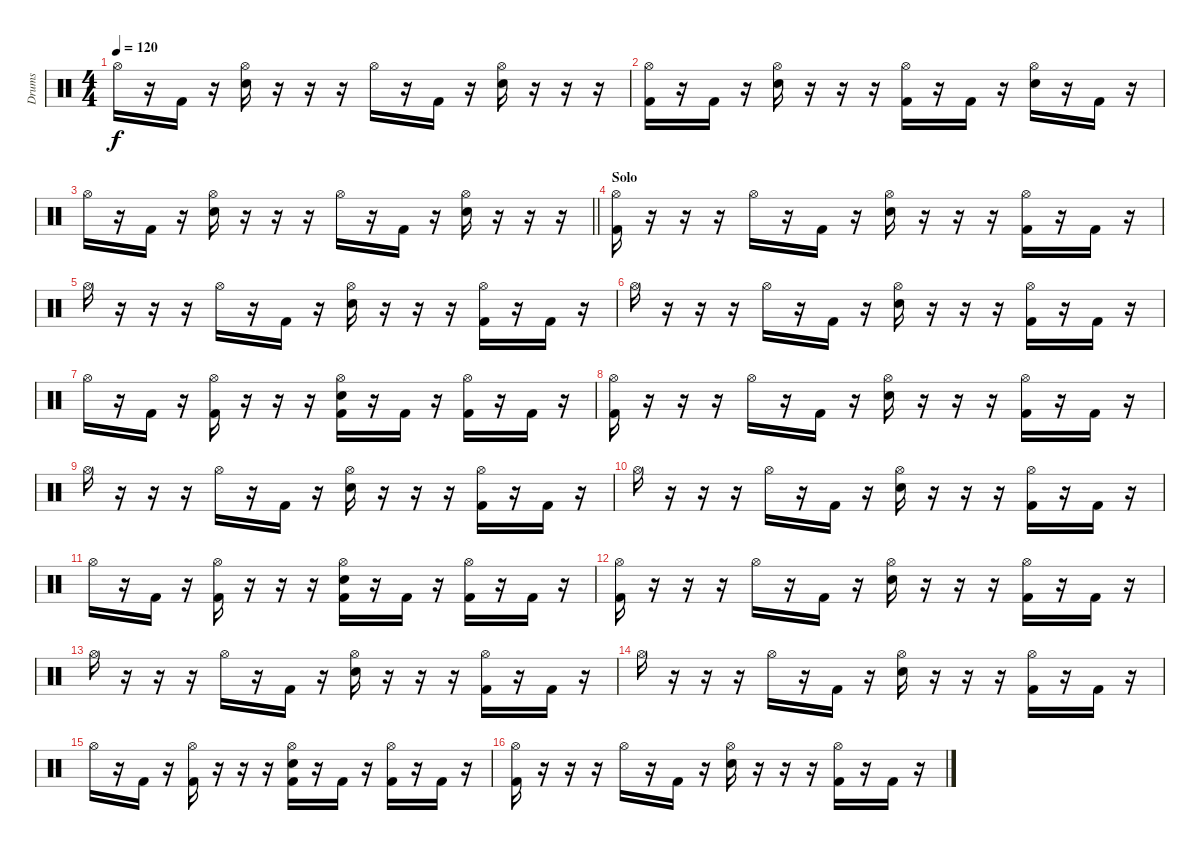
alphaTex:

\track ("Drums" "Drums") {instrument percussion}
\staff {score}
\articulation defaults
\ts (4 4)
\tempo 120
\clef neutral
\ks c "Hi-Hat (open)".16{dy f}
r.16 "Kick (hit) 2".16 r.16 ("Hi-Hat (open)" "Snare (hit) 2").16 r.16 r.16 r.16 "Hi-Hat (open)".16 r.16 "Kick (hit) 2".16 r.16 ("Hi-Hat (open)" "Snare (hit) 2").16 r.16 r.16 r.16 |
("Hi-Hat (open)" "Kick (hit) 2").16 r.16 "Kick (hit) 2".16 r.16 ("Hi-Hat (open)" "Snare (hit) 2").16 r.16 r.16 r.16 ("Hi-Hat (open)" "Kick (hit) 2").16 r.16 "Kick (hit) 2".16 r.16 ("Hi-Hat (open)" "Snare (hit) 2").16 r.16 "Kick (hit) 2".16 r.16 |
\barLineRight lightlight "Hi-Hat (open)".16
r.16 "Kick (hit) 2".16 r.16 ("Hi-Hat (open)" "Snare (hit) 2").16 r.16 r.16 r.16 "Hi-Hat (open)".16 r.16 "Kick (hit) 2".16 r.16 ("Hi-Hat (open)" "Snare (hit) 2").16 r.16 r.16 r.16 |
\section ("" "Solo")
("Hi-Hat (open)" "Kick (hit) 2").16 r.16 r.16 r.16 "Hi-Hat (open)".16 r.16 "Kick (hit) 2".16 r.16 ("Hi-Hat (open)" "Snare (hit) 2").16 r.16 r.16 r.16 ("Hi-Hat (open)" "Kick (hit) 2").16 r.16 "Kick (hit) 2".16 r.16 |
"Hi-Hat (open)".16 r.16 r.16 r.16 "Hi-Hat (open)".16 r.16 "Kick (hit) 2".16 r.16 ("Hi-Hat (open)" "Snare (hit) 2").16 r.16 r.16 r.16 ("Hi-Hat (open)" "Kick (hit) 2").16 r.16 "Kick (hit) 2".16 r.16 |
"Hi-Hat (open)".16 r.16 r.16 r.16 "Hi-Hat (open)".16 r.16 "Kick (hit) 2".16 r.16 ("Hi-Hat (open)" "Snare (hit) 2").16 r.16 r.16 r.16 ("Hi-Hat (open)" "Kick (hit) 2").16 r.16 "Kick (hit) 2".16 r.16 |
"Hi-Hat (open)".16 r.16 "Kick (hit) 2".16 r.16 ("Hi-Hat (open)" "Kick (hit) 2").16 r.16 r.16 r.16 ("Hi-Hat (open)" "Snare (hit) 2" "Kick (hit) 2").16 r.16 "Kick (hit) 2".16 r.16 ("Hi-Hat (open)" "Kick (hit) 2").16 r.16 "Kick (hit) 2".16 r.16 |
("Hi-Hat (open)" "Kick (hit) 2").16 r.16 r.16 r.16 "Hi-Hat (open)".16 r.16 "Kick (hit) 2".16 r.16 ("Hi-Hat (open)" "Snare (hit) 2").16 r.16 r.16 r.16 ("Hi-Hat (open)" "Kick (hit) 2").16 r.16 "Kick (hit) 2".16 r.16 |
"Hi-Hat (open)".16 r.16 r.16 r.16 "Hi-Hat (open)".16 r.16 "Kick (hit) 2".16 r.16 ("Hi-Hat (open)" "Snare (hit) 2").16 r.16 r.16 r.16 ("Hi-Hat (open)" "Kick (hit) 2").16 r.16 "Kick (hit) 2".16 r.16 |
"Hi-Hat (open)".16 r.16 r.16 r.16 "Hi-Hat (open)".16 r.16 "Kick (hit) 2".16 r.16 ("Hi-Hat (open)" "Snare (hit) 2").16 r.16 r.16 r.16 ("Hi-Hat (open)" "Kick (hit) 2").16 r.16 "Kick (hit) 2".16 r.16 |
"Hi-Hat (open)".16 r.16 "Kick (hit) 2".16 r.16 ("Hi-Hat (open)" "Kick (hit) 2").16 r.16 r.16 r.16 ("Hi-Hat (open)" "Snare (hit) 2" "Kick (hit) 2").16 r.16 "Kick (hit) 2".16 r.16 ("Hi-Hat (open)" "Kick (hit) 2").16 r.16 "Kick (hit) 2".16 r.16 |
("Hi-Hat (open)" "Kick (hit) 2").16 r.16 r.16 r.16 "Hi-Hat (open)".16 r.16 "Kick (hit) 2".16 r.16 ("Hi-Hat (open)" "Snare (hit) 2").16 r.16 r.16 r.16 ("Hi-Hat (open)" "Kick (hit) 2").16 r.16 "Kick (hit) 2".16 r.16 |
"Hi-Hat (open)".16 r.16 r.16 r.16 "Hi-Hat (open)".16 r.16 "Kick (hit) 2".16 r.16 ("Hi-Hat (open)" "Snare (hit) 2").16 r.16 r.16 r.16 ("Hi-Hat (open)" "Kick (hit) 2").16 r.16 "Kick (hit) 2".16 r.16 |
"Hi-Hat (open)".16 r.16 r.16 r.16 "Hi-Hat (open)".16 r.16 "Kick (hit) 2".16 r.16 ("Hi-Hat (open)" "Snare (hit) 2").16 r.16 r.16 r.16 ("Hi-Hat (open)" "Kick (hit) 2").16 r.16 "Kick (hit) 2".16 r.16 |
"Hi-Hat (open)".16 r.16 "Kick (hit) 2".16 r.16 ("Hi-Hat (open)" "Kick (hit) 2").16 r.16 r.16 r.16 ("Hi-Hat (open)" "Snare (hit) 2" "Kick (hit) 2").16 r.16 "Kick (hit) 2".16 r.16 ("Hi-Hat (open)" "Kick (hit) 2").16 r.16 "Kick (hit) 2".16 r.16 |
("Hi-Hat (open)" "Kick (hit) 2").16 r.16 r.16 r.16 "Hi-Hat (open)".16 r.16 "Kick (hit) 2".16 r.16 ("Hi-Hat (open)" "Snare (hit) 2").16 r.16 r.16 r.16 ("Hi-Hat (open)" "Kick (hit) 2").16 r.16 "Kick (hit) 2".16 r.16
